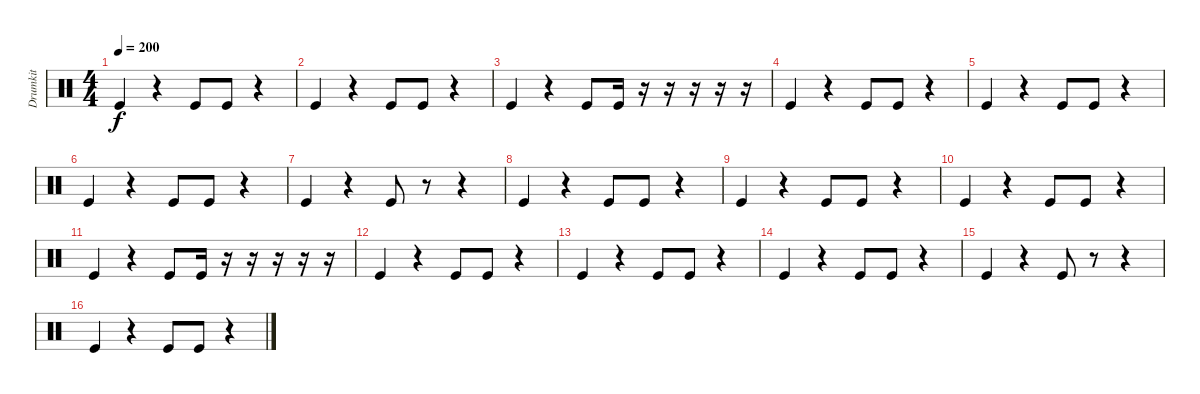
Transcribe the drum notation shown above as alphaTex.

\track ("Drumkit" "Drumkit") {instrument percussion}
\staff {score}
\articulation defaults
\ts (4 4)
\tempo 200
\clef neutral
\ks c "Kick (hit)".4{dy f}
r.4 "Kick (hit)".8 "Kick (hit)".8 r.4 |
"Kick (hit)".4 r.4 "Kick (hit)".8 "Kick (hit)".8 r.4 |
"Kick (hit)".4 r.4 "Kick (hit)".8 "Kick (hit)".16 r.16 r.16 r.16 r.16 r.16 |
"Kick (hit)".4 r.4 "Kick (hit)".8 "Kick (hit)".8 r.4 |
"Kick (hit)".4 r.4 "Kick (hit)".8 "Kick (hit)".8 r.4 |
"Kick (hit)".4 r.4 "Kick (hit)".8 "Kick (hit)".8 r.4 |
"Kick (hit)".4 r.4 "Kick (hit)".8 r.8 r.4 |
"Kick (hit)".4 r.4 "Kick (hit)".8 "Kick (hit)".8 r.4 |
"Kick (hit)".4 r.4 "Kick (hit)".8 "Kick (hit)".8 r.4 |
"Kick (hit)".4 r.4 "Kick (hit)".8 "Kick (hit)".8 r.4 |
"Kick (hit)".4 r.4 "Kick (hit)".8 "Kick (hit)".16 r.16 r.16 r.16 r.16 r.16 |
"Kick (hit)".4 r.4 "Kick (hit)".8 "Kick (hit)".8 r.4 |
"Kick (hit)".4 r.4 "Kick (hit)".8 "Kick (hit)".8 r.4 |
"Kick (hit)".4 r.4 "Kick (hit)".8 "Kick (hit)".8 r.4 |
"Kick (hit)".4 r.4 "Kick (hit)".8 r.8 r.4 |
"Kick (hit)".4 r.4 "Kick (hit)".8 "Kick (hit)".8 r.4
